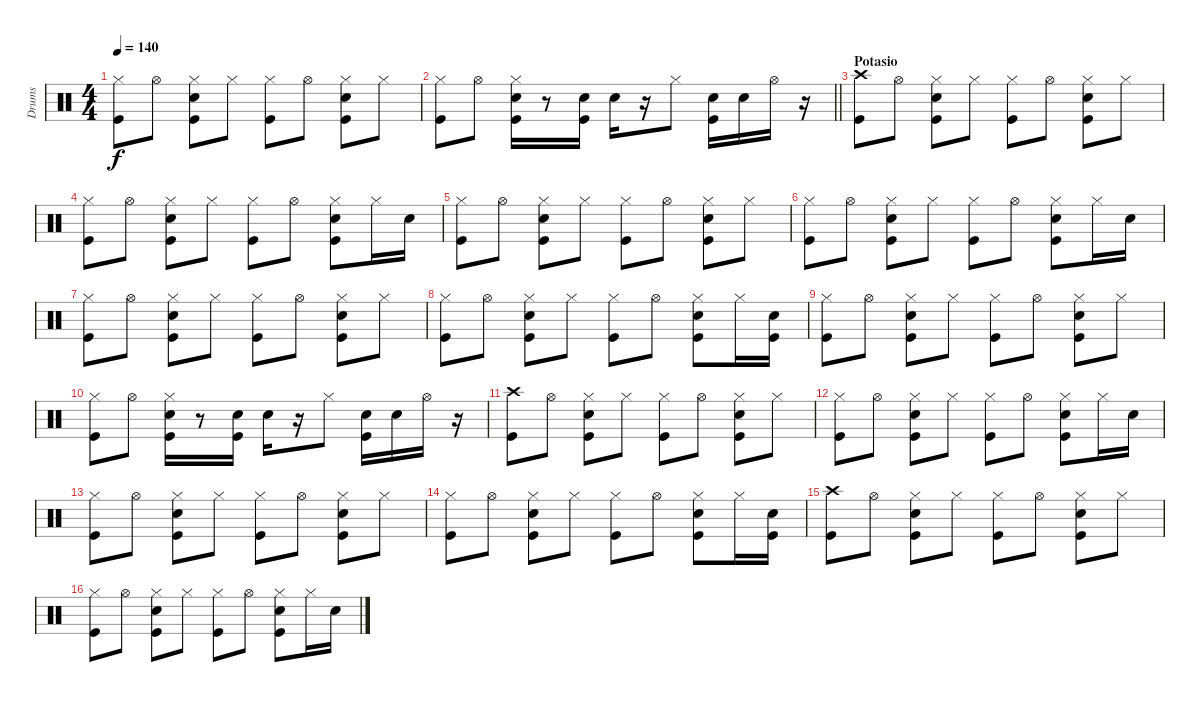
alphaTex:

\track ("Drums" "Drums") {instrument percussion}
\staff {score}
\articulation defaults
\ts (4 4)
\tempo 140
\clef neutral
\ks c
("Hi-Hat (closed)" "Kick (hit)").8{dy f} "Hi-Hat (open)".8 ("Hi-Hat (closed)" "Snare (hit) 2" "Kick (hit)").8 "Hi-Hat (closed)".8 ("Hi-Hat (closed)" "Kick (hit)").8 "Hi-Hat (open)".8 ("Hi-Hat (closed)" "Snare (hit) 2" "Kick (hit)").8 "Hi-Hat (closed)".8 |
\barLineRight lightlight
("Hi-Hat (closed)" "Kick (hit)").8 "Hi-Hat (open)".8 ("Hi-Hat (closed)" "Snare (hit) 2" "Kick (hit)").16 r.8 ("Snare (hit) 2" "Kick (hit)").16 "Snare (hit) 2".16 r.16 "Hi-Hat (closed)".8 ("Snare (hit) 2" "Kick (hit)").16 "Snare (hit) 2".16 "Hi-Hat (open)".16 r.16 |
\section ("" "Potasio")
("Crash high (hit)" "Kick (hit)").8 "Hi-Hat (open)".8 ("Hi-Hat (closed)" "Snare (hit) 2" "Kick (hit)").8 "Hi-Hat (closed)".8 ("Hi-Hat (closed)" "Kick (hit)").8 "Hi-Hat (open)".8 ("Hi-Hat (closed)" "Snare (hit) 2" "Kick (hit)").8 "Hi-Hat (closed)".8 |
("Hi-Hat (closed)" "Kick (hit)").8 "Hi-Hat (open)".8 ("Hi-Hat (closed)" "Snare (hit) 2" "Kick (hit)").8 "Hi-Hat (closed)".8 ("Hi-Hat (closed)" "Kick (hit)").8 "Hi-Hat (open)".8 ("Hi-Hat (closed)" "Snare (hit) 2" "Kick (hit)").8 "Hi-Hat (closed)".16 "Snare (hit) 2".16 |
("Hi-Hat (closed)" "Kick (hit)").8 "Hi-Hat (open)".8 ("Hi-Hat (closed)" "Snare (hit) 2" "Kick (hit)").8 "Hi-Hat (closed)".8 ("Hi-Hat (closed)" "Kick (hit)").8 "Hi-Hat (open)".8 ("Hi-Hat (closed)" "Snare (hit) 2" "Kick (hit)").8 "Hi-Hat (closed)".8 |
("Hi-Hat (closed)" "Kick (hit)").8 "Hi-Hat (open)".8 ("Hi-Hat (closed)" "Snare (hit) 2" "Kick (hit)").8 "Hi-Hat (closed)".8 ("Hi-Hat (closed)" "Kick (hit)").8 "Hi-Hat (open)".8 ("Hi-Hat (closed)" "Snare (hit) 2" "Kick (hit)").8 "Hi-Hat (closed)".16 "Snare (hit) 2".16 |
("Hi-Hat (closed)" "Kick (hit)").8 "Hi-Hat (open)".8 ("Hi-Hat (closed)" "Snare (hit) 2" "Kick (hit)").8 "Hi-Hat (closed)".8 ("Hi-Hat (closed)" "Kick (hit)").8 "Hi-Hat (open)".8 ("Hi-Hat (closed)" "Snare (hit) 2" "Kick (hit)").8 "Hi-Hat (closed)".8 |
("Hi-Hat (closed)" "Kick (hit)").8 "Hi-Hat (open)".8 ("Hi-Hat (closed)" "Snare (hit) 2" "Kick (hit)").8 "Hi-Hat (closed)".8 ("Hi-Hat (closed)" "Kick (hit)").8 "Hi-Hat (open)".8 ("Hi-Hat (closed)" "Snare (hit) 2" "Kick (hit)").8 "Hi-Hat (closed)".16 ("Snare (hit) 2" "Kick (hit)").16 |
("Hi-Hat (closed)" "Kick (hit)").8 "Hi-Hat (open)".8 ("Hi-Hat (closed)" "Snare (hit) 2" "Kick (hit)").8 "Hi-Hat (closed)".8 ("Hi-Hat (closed)" "Kick (hit)").8 "Hi-Hat (open)".8 ("Hi-Hat (closed)" "Snare (hit) 2" "Kick (hit)").8 "Hi-Hat (closed)".8 |
("Hi-Hat (closed)" "Kick (hit)").8 "Hi-Hat (open)".8 ("Hi-Hat (closed)" "Snare (hit) 2" "Kick (hit)").16 r.8 ("Snare (hit) 2" "Kick (hit)").16 "Snare (hit) 2".16 r.16 "Hi-Hat (closed)".8 ("Snare (hit) 2" "Kick (hit)").16 "Snare (hit) 2".16 "Hi-Hat (open)".16 r.16 |
("Crash high (hit)" "Kick (hit)").8 "Hi-Hat (open)".8 ("Hi-Hat (closed)" "Snare (hit) 2" "Kick (hit)").8 "Hi-Hat (closed)".8 ("Hi-Hat (closed)" "Kick (hit)").8 "Hi-Hat (open)".8 ("Hi-Hat (closed)" "Snare (hit) 2" "Kick (hit)").8 "Hi-Hat (closed)".8 |
("Hi-Hat (closed)" "Kick (hit)").8 "Hi-Hat (open)".8 ("Hi-Hat (closed)" "Snare (hit) 2" "Kick (hit)").8 "Hi-Hat (closed)".8 ("Hi-Hat (closed)" "Kick (hit)").8 "Hi-Hat (open)".8 ("Hi-Hat (closed)" "Snare (hit) 2" "Kick (hit)").8 "Hi-Hat (closed)".16 "Snare (hit) 2".16 |
("Hi-Hat (closed)" "Kick (hit)").8 "Hi-Hat (open)".8 ("Hi-Hat (closed)" "Snare (hit) 2" "Kick (hit)").8 "Hi-Hat (closed)".8 ("Hi-Hat (closed)" "Kick (hit)").8 "Hi-Hat (open)".8 ("Hi-Hat (closed)" "Snare (hit) 2" "Kick (hit)").8 "Hi-Hat (closed)".8 |
("Hi-Hat (closed)" "Kick (hit)").8 "Hi-Hat (open)".8 ("Hi-Hat (closed)" "Snare (hit) 2" "Kick (hit)").8 "Hi-Hat (closed)".8 ("Hi-Hat (closed)" "Kick (hit)").8 "Hi-Hat (open)".8 ("Hi-Hat (closed)" "Snare (hit) 2" "Kick (hit)").8 "Hi-Hat (closed)".16 ("Snare (hit) 2" "Kick (hit)").16 |
("Crash high (hit)" "Kick (hit)").8 "Hi-Hat (open)".8 ("Hi-Hat (closed)" "Snare (hit) 2" "Kick (hit)").8 "Hi-Hat (closed)".8 ("Hi-Hat (closed)" "Kick (hit)").8 "Hi-Hat (open)".8 ("Hi-Hat (closed)" "Snare (hit) 2" "Kick (hit)").8 "Hi-Hat (closed)".8 |
("Hi-Hat (closed)" "Kick (hit)").8 "Hi-Hat (open)".8 ("Hi-Hat (closed)" "Snare (hit) 2" "Kick (hit)").8 "Hi-Hat (closed)".8 ("Hi-Hat (closed)" "Kick (hit)").8 "Hi-Hat (open)".8 ("Hi-Hat (closed)" "Snare (hit) 2" "Kick (hit)").8 "Hi-Hat (closed)".16 "Snare (hit) 2".16
